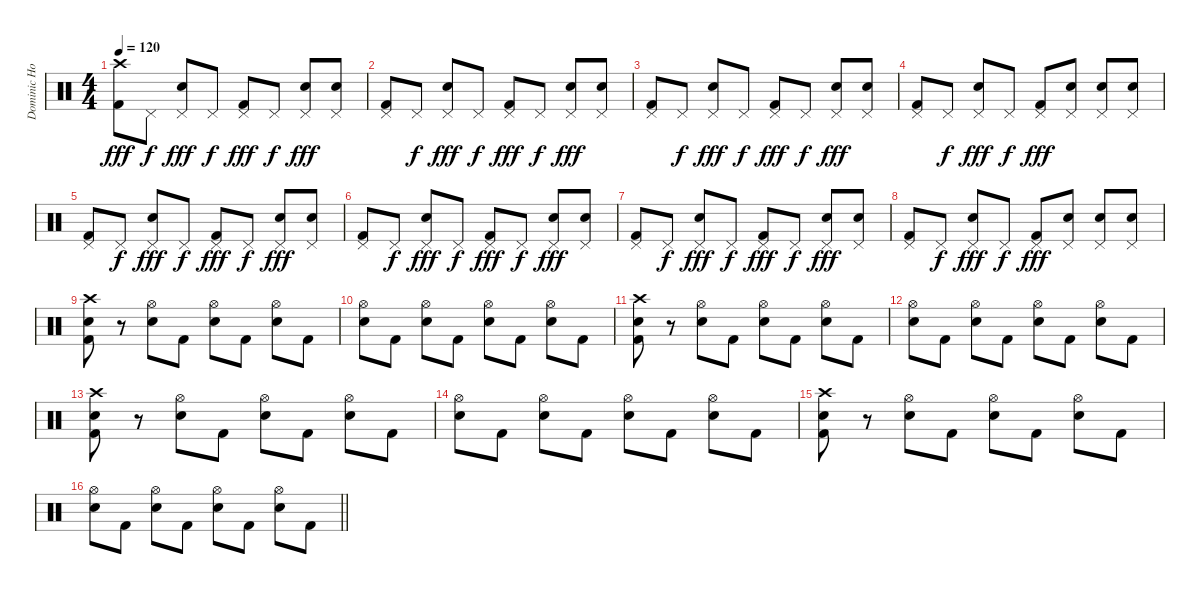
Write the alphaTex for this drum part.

\track ("Dominic Howard" "Dominic Ho") {instrument percussion}
\staff {score}
\articulation defaults
\ts (4 4)
\tempo 120
\clef neutral
\ks c
("Crash high (hit)" "Kick (hit) 2").8{dy fff} "Pedal Hi-Hat (hit)".8{dy f} ("Pedal Hi-Hat (hit)" "Snare (hit) 2").8{dy fff} "Pedal Hi-Hat (hit)".8{dy f} ("Pedal Hi-Hat (hit)" "Kick (hit) 2").8{dy fff} "Pedal Hi-Hat (hit)".8{dy f} ("Pedal Hi-Hat (hit)" "Snare (hit) 2").8{dy fff} ("Pedal Hi-Hat (hit)" "Snare (hit) 2").8 |
("Pedal Hi-Hat (hit)" "Kick (hit) 2").8 "Pedal Hi-Hat (hit)".8{dy f} ("Pedal Hi-Hat (hit)" "Snare (hit) 2").8{dy fff} "Pedal Hi-Hat (hit)".8{dy f} ("Pedal Hi-Hat (hit)" "Kick (hit) 2").8{dy fff} "Pedal Hi-Hat (hit)".8{dy f} ("Pedal Hi-Hat (hit)" "Snare (hit) 2").8{dy fff} ("Pedal Hi-Hat (hit)" "Snare (hit) 2").8 |
("Pedal Hi-Hat (hit)" "Kick (hit) 2").8 "Pedal Hi-Hat (hit)".8{dy f} ("Pedal Hi-Hat (hit)" "Snare (hit) 2").8{dy fff} "Pedal Hi-Hat (hit)".8{dy f} ("Pedal Hi-Hat (hit)" "Kick (hit) 2").8{dy fff} "Pedal Hi-Hat (hit)".8{dy f} ("Pedal Hi-Hat (hit)" "Snare (hit) 2").8{dy fff} ("Pedal Hi-Hat (hit)" "Snare (hit) 2").8 |
("Pedal Hi-Hat (hit)" "Kick (hit) 2").8 "Pedal Hi-Hat (hit)".8{dy f} ("Pedal Hi-Hat (hit)" "Snare (hit) 2").8{dy fff} "Pedal Hi-Hat (hit)".8{dy f} ("Pedal Hi-Hat (hit)" "Kick (hit) 2").8{dy fff} ("Pedal Hi-Hat (hit)" "Snare (hit) 2").8 ("Pedal Hi-Hat (hit)" "Snare (hit) 2").8 ("Pedal Hi-Hat (hit)" "Snare (hit) 2").8 |
("Pedal Hi-Hat (hit)" "Kick (hit) 2").8 "Pedal Hi-Hat (hit)".8{dy f} ("Pedal Hi-Hat (hit)" "Snare (hit) 2").8{dy fff} "Pedal Hi-Hat (hit)".8{dy f} ("Pedal Hi-Hat (hit)" "Kick (hit) 2").8{dy fff} "Pedal Hi-Hat (hit)".8{dy f} ("Pedal Hi-Hat (hit)" "Snare (hit) 2").8{dy fff} ("Pedal Hi-Hat (hit)" "Snare (hit) 2").8 |
("Pedal Hi-Hat (hit)" "Kick (hit) 2").8 "Pedal Hi-Hat (hit)".8{dy f} ("Pedal Hi-Hat (hit)" "Snare (hit) 2").8{dy fff} "Pedal Hi-Hat (hit)".8{dy f} ("Pedal Hi-Hat (hit)" "Kick (hit) 2").8{dy fff} "Pedal Hi-Hat (hit)".8{dy f} ("Pedal Hi-Hat (hit)" "Snare (hit) 2").8{dy fff} ("Pedal Hi-Hat (hit)" "Snare (hit) 2").8 |
("Pedal Hi-Hat (hit)" "Kick (hit) 2").8 "Pedal Hi-Hat (hit)".8{dy f} ("Pedal Hi-Hat (hit)" "Snare (hit) 2").8{dy fff} "Pedal Hi-Hat (hit)".8{dy f} ("Pedal Hi-Hat (hit)" "Kick (hit) 2").8{dy fff} "Pedal Hi-Hat (hit)".8{dy f} ("Pedal Hi-Hat (hit)" "Snare (hit) 2").8{dy fff} ("Pedal Hi-Hat (hit)" "Snare (hit) 2").8 |
("Pedal Hi-Hat (hit)" "Kick (hit) 2").8 "Pedal Hi-Hat (hit)".8{dy f} ("Pedal Hi-Hat (hit)" "Snare (hit) 2").8{dy fff} "Pedal Hi-Hat (hit)".8{dy f} ("Pedal Hi-Hat (hit)" "Kick (hit) 2").8{dy fff} ("Pedal Hi-Hat (hit)" "Snare (hit) 2").8 ("Pedal Hi-Hat (hit)" "Snare (hit) 2").8 ("Pedal Hi-Hat (hit)" "Snare (hit) 2").8 |
("Crash high (hit)" "Snare (hit) 2" "Kick (hit) 2").8 r.8 ("Hi-Hat (open)" "Snare (hit) 2").8 "Kick (hit) 2".8 ("Hi-Hat (open)" "Snare (hit) 2").8 "Kick (hit) 2".8 ("Hi-Hat (open)" "Snare (hit) 2").8 "Kick (hit) 2".8 |
("Hi-Hat (open)" "Snare (hit) 2").8 "Kick (hit) 2".8 ("Hi-Hat (open)" "Snare (hit) 2").8 "Kick (hit) 2".8 ("Hi-Hat (open)" "Snare (hit) 2").8 "Kick (hit) 2".8 ("Hi-Hat (open)" "Snare (hit) 2").8 "Kick (hit) 2".8 |
("Crash high (hit)" "Snare (hit) 2" "Kick (hit) 2").8 r.8 ("Hi-Hat (open)" "Snare (hit) 2").8 "Kick (hit) 2".8 ("Hi-Hat (open)" "Snare (hit) 2").8 "Kick (hit) 2".8 ("Hi-Hat (open)" "Snare (hit) 2").8 "Kick (hit) 2".8 |
("Hi-Hat (open)" "Snare (hit) 2").8 "Kick (hit) 2".8 ("Hi-Hat (open)" "Snare (hit) 2").8 "Kick (hit) 2".8 ("Hi-Hat (open)" "Snare (hit) 2").8 "Kick (hit) 2".8 ("Hi-Hat (open)" "Snare (hit) 2").8 "Kick (hit) 2".8 |
("Crash high (hit)" "Snare (hit) 2" "Kick (hit) 2").8 r.8 ("Hi-Hat (open)" "Snare (hit) 2").8 "Kick (hit) 2".8 ("Hi-Hat (open)" "Snare (hit) 2").8 "Kick (hit) 2".8 ("Hi-Hat (open)" "Snare (hit) 2").8 "Kick (hit) 2".8 |
("Hi-Hat (open)" "Snare (hit) 2").8 "Kick (hit) 2".8 ("Hi-Hat (open)" "Snare (hit) 2").8 "Kick (hit) 2".8 ("Hi-Hat (open)" "Snare (hit) 2").8 "Kick (hit) 2".8 ("Hi-Hat (open)" "Snare (hit) 2").8 "Kick (hit) 2".8 |
("Crash high (hit)" "Snare (hit) 2" "Kick (hit) 2").8 r.8 ("Hi-Hat (open)" "Snare (hit) 2").8 "Kick (hit) 2".8 ("Hi-Hat (open)" "Snare (hit) 2").8 "Kick (hit) 2".8 ("Hi-Hat (open)" "Snare (hit) 2").8 "Kick (hit) 2".8 |
\barLineRight lightlight
("Hi-Hat (open)" "Snare (hit) 2").8 "Kick (hit) 2".8 ("Hi-Hat (open)" "Snare (hit) 2").8 "Kick (hit) 2".8 ("Hi-Hat (open)" "Snare (hit) 2").8 "Kick (hit) 2".8 ("Hi-Hat (open)" "Snare (hit) 2").8 "Kick (hit) 2".8
